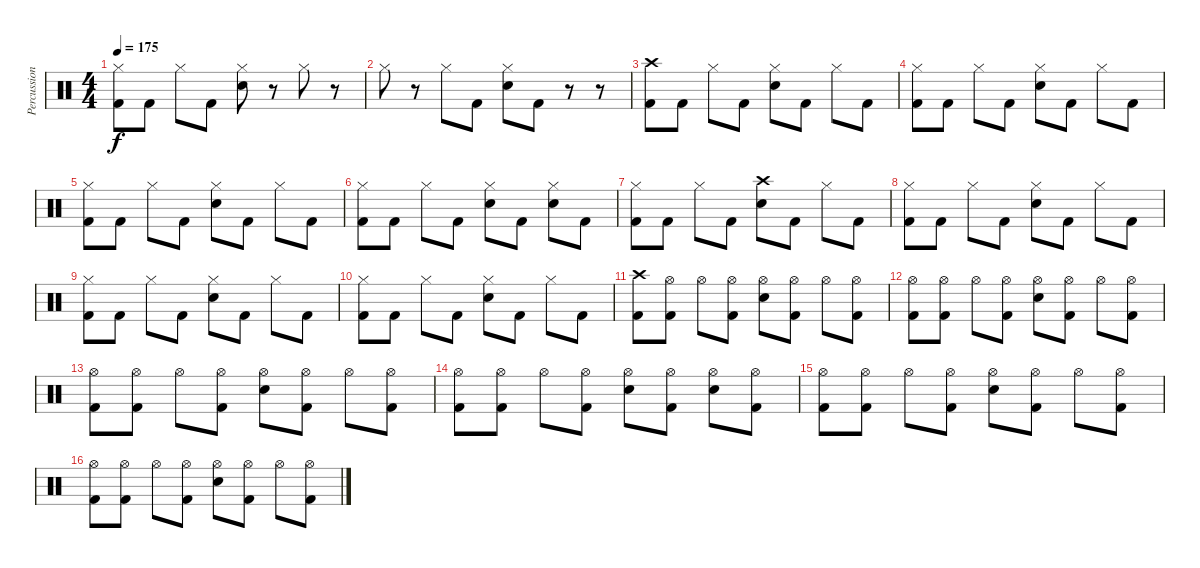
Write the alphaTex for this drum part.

\track ("Percussion (Moose)" "Percussion") {instrument percussion}
\staff {score}
\articulation defaults
\ts (4 4)
\tempo 175
\clef neutral
\ks c
("Hi-Hat (closed)" "Kick (hit) 2").8{dy f} "Kick (hit) 2".8 "Hi-Hat (closed)".8 "Kick (hit) 2".8 ("Hi-Hat (closed)" "Electric Snare (hit)").8 r.8 "Hi-Hat (closed)".8 r.8 |
"Hi-Hat (closed)".8 r.8 "Hi-Hat (closed)".8 "Kick (hit) 2".8 ("Hi-Hat (closed)" "Electric Snare (hit)").8 "Kick (hit) 2".8 r.8 r.8 |
("Crash high (hit)" "Kick (hit) 2").8 "Kick (hit) 2".8 "Hi-Hat (closed)".8 "Kick (hit) 2".8 ("Hi-Hat (closed)" "Electric Snare (hit)").8 "Kick (hit) 2".8 "Hi-Hat (closed)".8 "Kick (hit) 2".8 |
("Hi-Hat (closed)" "Kick (hit) 2").8 "Kick (hit) 2".8 "Hi-Hat (closed)".8 "Kick (hit) 2".8 ("Hi-Hat (closed)" "Electric Snare (hit)").8 "Kick (hit) 2".8 "Hi-Hat (closed)".8 "Kick (hit) 2".8 |
("Hi-Hat (closed)" "Kick (hit) 2").8 "Kick (hit) 2".8 "Hi-Hat (closed)".8 "Kick (hit) 2".8 ("Hi-Hat (closed)" "Electric Snare (hit)").8 "Kick (hit) 2".8 "Hi-Hat (closed)".8 "Kick (hit) 2".8 |
("Hi-Hat (closed)" "Kick (hit) 2").8 "Kick (hit) 2".8 "Hi-Hat (closed)".8 "Kick (hit) 2".8 ("Hi-Hat (closed)" "Electric Snare (hit)").8 "Kick (hit) 2".8 ("Hi-Hat (closed)" "Electric Snare (hit)").8 "Kick (hit) 2".8 |
("Hi-Hat (closed)" "Kick (hit) 2").8 "Kick (hit) 2".8 "Hi-Hat (closed)".8 "Kick (hit) 2".8 ("Crash high (hit)" "Electric Snare (hit)").8 "Kick (hit) 2".8 "Hi-Hat (closed)".8 "Kick (hit) 2".8 |
("Hi-Hat (closed)" "Kick (hit) 2").8 "Kick (hit) 2".8 "Hi-Hat (closed)".8 "Kick (hit) 2".8 ("Hi-Hat (closed)" "Electric Snare (hit)").8 "Kick (hit) 2".8 "Hi-Hat (closed)".8 "Kick (hit) 2".8 |
("Hi-Hat (closed)" "Kick (hit) 2").8 "Kick (hit) 2".8 "Hi-Hat (closed)".8 "Kick (hit) 2".8 ("Hi-Hat (closed)" "Electric Snare (hit)").8 "Kick (hit) 2".8 "Hi-Hat (closed)".8 "Kick (hit) 2".8 |
("Hi-Hat (closed)" "Kick (hit) 2").8 "Kick (hit) 2".8 "Hi-Hat (closed)".8 "Kick (hit) 2".8 ("Hi-Hat (closed)" "Electric Snare (hit)").8 "Kick (hit) 2".8 "Hi-Hat (closed)".8 "Kick (hit) 2".8 |
("Crash high (hit)" "Kick (hit) 2").8 ("Hi-Hat (open)" "Kick (hit) 2").8 "Hi-Hat (open)".8 ("Hi-Hat (open)" "Kick (hit) 2").8 ("Hi-Hat (open)" "Electric Snare (hit)").8 ("Hi-Hat (open)" "Kick (hit) 2").8 "Hi-Hat (open)".8 ("Hi-Hat (open)" "Kick (hit) 2").8 |
("Hi-Hat (open)" "Kick (hit) 2").8 ("Hi-Hat (open)" "Kick (hit) 2").8 "Hi-Hat (open)".8 ("Hi-Hat (open)" "Kick (hit) 2").8 ("Hi-Hat (open)" "Electric Snare (hit)").8 ("Hi-Hat (open)" "Kick (hit) 2").8 "Hi-Hat (open)".8 ("Hi-Hat (open)" "Kick (hit) 2").8 |
("Hi-Hat (open)" "Kick (hit) 2").8 ("Hi-Hat (open)" "Kick (hit) 2").8 "Hi-Hat (open)".8 ("Hi-Hat (open)" "Kick (hit) 2").8 ("Hi-Hat (open)" "Electric Snare (hit)").8 ("Hi-Hat (open)" "Kick (hit) 2").8 "Hi-Hat (open)".8 ("Hi-Hat (open)" "Kick (hit) 2").8 |
("Hi-Hat (open)" "Kick (hit) 2").8 ("Hi-Hat (open)" "Kick (hit) 2").8 "Hi-Hat (open)".8 ("Hi-Hat (open)" "Kick (hit) 2").8 ("Hi-Hat (open)" "Electric Snare (hit)").8 ("Hi-Hat (open)" "Kick (hit) 2").8 ("Hi-Hat (open)" "Electric Snare (hit)").8 ("Hi-Hat (open)" "Kick (hit) 2").8 |
("Hi-Hat (open)" "Kick (hit) 2").8 ("Hi-Hat (open)" "Kick (hit) 2").8 "Hi-Hat (open)".8 ("Hi-Hat (open)" "Kick (hit) 2").8 ("Hi-Hat (open)" "Electric Snare (hit)").8 ("Hi-Hat (open)" "Kick (hit) 2").8 "Hi-Hat (open)".8 ("Hi-Hat (open)" "Kick (hit) 2").8 |
("Hi-Hat (open)" "Kick (hit) 2").8 ("Hi-Hat (open)" "Kick (hit) 2").8 "Hi-Hat (open)".8 ("Hi-Hat (open)" "Kick (hit) 2").8 ("Hi-Hat (open)" "Electric Snare (hit)").8 ("Hi-Hat (open)" "Kick (hit) 2").8 "Hi-Hat (open)".8 ("Hi-Hat (open)" "Kick (hit) 2").8
